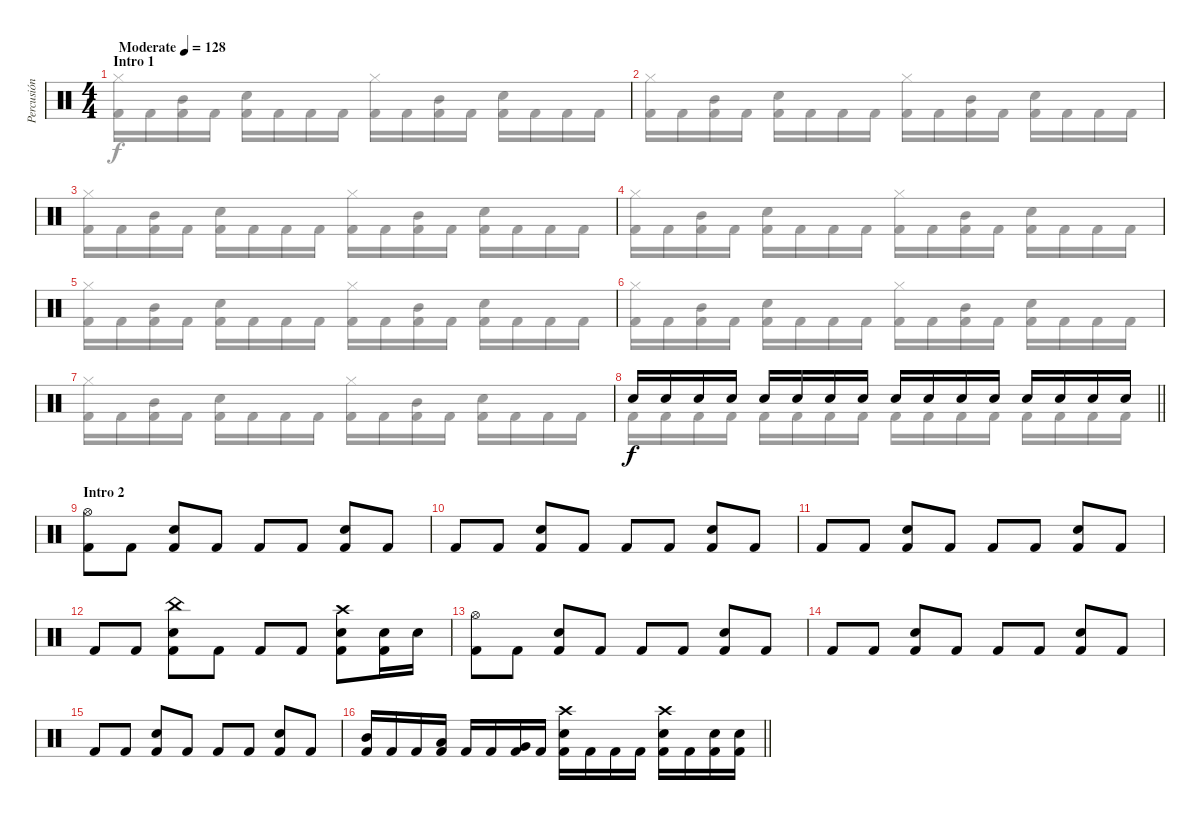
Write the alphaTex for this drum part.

\track ("Percusión" "Percusión") {instrument percussion}
\staff {score}
\articulation defaults
\voice
\ts (4 4)
\section ("" "Intro 1")
\tempo (128 "Moderate")
\clef neutral
\ks c
|
|
|
|
|
|
|
\barLineRight lightlight "Snare (hit) 2".16 "Snare (hit) 2".16 "Snare (hit) 2".16 "Snare (hit) 2".16 "Snare (hit) 2".16 "Snare (hit) 2".16 "Snare (hit) 2".16 "Snare (hit) 2".16 "Snare (hit) 2".16 "Snare (hit) 2".16 "Snare (hit) 2".16 "Snare (hit) 2".16 "Snare (hit) 2".16 "Snare (hit) 2".16 "Snare (hit) 2".16 "Snare (hit) 2".16
|
\section ("" "Intro 2")
("Hi-Hat (open)" "Kick (hit) 2").8 "Kick (hit) 2".8 ("Snare (hit) 2" "Kick (hit) 2").8 "Kick (hit) 2".8 "Kick (hit) 2".8 "Kick (hit) 2".8 ("Snare (hit) 2" "Kick (hit) 2").8 "Kick (hit) 2".8 |
"Kick (hit) 2".8 "Kick (hit) 2".8 ("Snare (hit) 2" "Kick (hit) 2").8 "Kick (hit) 2".8 "Kick (hit) 2".8 "Kick (hit) 2".8 ("Snare (hit) 2" "Kick (hit) 2").8 "Kick (hit) 2".8 |
"Kick (hit) 2".8 "Kick (hit) 2".8 ("Snare (hit) 2" "Kick (hit) 2").8 "Kick (hit) 2".8 "Kick (hit) 2".8 "Kick (hit) 2".8 ("Snare (hit) 2" "Kick (hit) 2").8 "Kick (hit) 2".8 |
"Kick (hit) 2".8 "Kick (hit) 2".8 ("China (hit)" "Snare (hit) 2" "Kick (hit) 2").8 "Kick (hit) 2".8 "Kick (hit) 2".8 "Kick (hit) 2".8 ("Crash high (hit)" "Snare (hit) 2" "Kick (hit) 2").8 ("Snare (hit) 2" "Kick (hit) 2").16 "Snare (hit) 2".16 |
("Hi-Hat (open)" "Kick (hit) 2").8 "Kick (hit) 2".8 ("Snare (hit) 2" "Kick (hit) 2").8 "Kick (hit) 2".8 "Kick (hit) 2".8 "Kick (hit) 2".8 ("Snare (hit) 2" "Kick (hit) 2").8 "Kick (hit) 2".8 |
"Kick (hit) 2".8 "Kick (hit) 2".8 ("Snare (hit) 2" "Kick (hit) 2").8 "Kick (hit) 2".8 "Kick (hit) 2".8 "Kick (hit) 2".8 ("Snare (hit) 2" "Kick (hit) 2").8 "Kick (hit) 2".8 |
"Kick (hit) 2".8 "Kick (hit) 2".8 ("Snare (hit) 2" "Kick (hit) 2").8 "Kick (hit) 2".8 "Kick (hit) 2".8 "Kick (hit) 2".8 ("Snare (hit) 2" "Kick (hit) 2").8 "Kick (hit) 2".8 |
\barLineRight lightlight
("Mid Tom (hit)" "Kick (hit) 2").16 "Kick (hit) 2".16 "Kick (hit) 2".16 ("Low Tom (hit)" "Kick (hit) 2").16 "Kick (hit) 2".16 "Kick (hit) 2".16 ("Very Low Tom (hit)" "Kick (hit) 2").16 "Kick (hit) 2".16 ("Crash high (hit)" "Snare (hit) 2" "Kick (hit) 2").16 "Kick (hit) 2".16 "Kick (hit) 2".16 "Kick (hit) 2".16 ("Crash high (hit)" "Snare (hit) 2" "Kick (hit) 2").16 "Kick (hit) 2".16 ("Snare (hit) 2" "Kick (hit) 2").16 ("Snare (hit) 2" "Kick (hit) 2").16
\voice
\clef neutral
\ottava regular
\simile none
\ks c
("Hi-Hat (closed)" "Kick (hit) 2").16{dy f} "Kick (hit) 2".16 ("Mid Tom (hit)" "Kick (hit) 2").16 "Kick (hit) 2".16 ("Snare (hit) 2" "Kick (hit) 2").16 "Kick (hit) 2".16 "Kick (hit) 2".16 "Kick (hit) 2".16 ("Hi-Hat (closed)" "Kick (hit) 2").16 "Kick (hit) 2".16 ("Mid Tom (hit)" "Kick (hit) 2").16 "Kick (hit) 2".16 ("Snare (hit) 2" "Kick (hit) 2").16 "Kick (hit) 2".16 "Kick (hit) 2".16 "Kick (hit) 2".16 |
("Hi-Hat (closed)" "Kick (hit) 2").16 "Kick (hit) 2".16 ("Mid Tom (hit)" "Kick (hit) 2").16 "Kick (hit) 2".16 ("Snare (hit) 2" "Kick (hit) 2").16 "Kick (hit) 2".16 "Kick (hit) 2".16 "Kick (hit) 2".16 ("Hi-Hat (closed)" "Kick (hit) 2").16 "Kick (hit) 2".16 ("Mid Tom (hit)" "Kick (hit) 2").16 "Kick (hit) 2".16 ("Snare (hit) 2" "Kick (hit) 2").16 "Kick (hit) 2".16 "Kick (hit) 2".16 "Kick (hit) 2".16 |
("Hi-Hat (closed)" "Kick (hit) 2").16 "Kick (hit) 2".16 ("Mid Tom (hit)" "Kick (hit) 2").16 "Kick (hit) 2".16 ("Snare (hit) 2" "Kick (hit) 2").16 "Kick (hit) 2".16 "Kick (hit) 2".16 "Kick (hit) 2".16 ("Hi-Hat (closed)" "Kick (hit) 2").16 "Kick (hit) 2".16 ("Mid Tom (hit)" "Kick (hit) 2").16 "Kick (hit) 2".16 ("Snare (hit) 2" "Kick (hit) 2").16 "Kick (hit) 2".16 "Kick (hit) 2".16 "Kick (hit) 2".16 |
("Hi-Hat (closed)" "Kick (hit) 2").16 "Kick (hit) 2".16 ("Mid Tom (hit)" "Kick (hit) 2").16 "Kick (hit) 2".16 ("Snare (hit) 2" "Kick (hit) 2").16 "Kick (hit) 2".16 "Kick (hit) 2".16 "Kick (hit) 2".16 ("Hi-Hat (closed)" "Kick (hit) 2").16 "Kick (hit) 2".16 ("Mid Tom (hit)" "Kick (hit) 2").16 "Kick (hit) 2".16 ("Snare (hit) 2" "Kick (hit) 2").16 "Kick (hit) 2".16 "Kick (hit) 2".16 "Kick (hit) 2".16 |
("Hi-Hat (closed)" "Kick (hit) 2").16 "Kick (hit) 2".16 ("Mid Tom (hit)" "Kick (hit) 2").16 "Kick (hit) 2".16 ("Snare (hit) 2" "Kick (hit) 2").16 "Kick (hit) 2".16 "Kick (hit) 2".16 "Kick (hit) 2".16 ("Hi-Hat (closed)" "Kick (hit) 2").16 "Kick (hit) 2".16 ("Mid Tom (hit)" "Kick (hit) 2").16 "Kick (hit) 2".16 ("Snare (hit) 2" "Kick (hit) 2").16 "Kick (hit) 2".16 "Kick (hit) 2".16 "Kick (hit) 2".16 |
("Hi-Hat (closed)" "Kick (hit) 2").16 "Kick (hit) 2".16 ("Mid Tom (hit)" "Kick (hit) 2").16 "Kick (hit) 2".16 ("Snare (hit) 2" "Kick (hit) 2").16 "Kick (hit) 2".16 "Kick (hit) 2".16 "Kick (hit) 2".16 ("Hi-Hat (closed)" "Kick (hit) 2").16 "Kick (hit) 2".16 ("Mid Tom (hit)" "Kick (hit) 2").16 "Kick (hit) 2".16 ("Snare (hit) 2" "Kick (hit) 2").16 "Kick (hit) 2".16 "Kick (hit) 2".16 "Kick (hit) 2".16 |
("Hi-Hat (closed)" "Kick (hit) 2").16 "Kick (hit) 2".16 ("Mid Tom (hit)" "Kick (hit) 2").16 "Kick (hit) 2".16 ("Snare (hit) 2" "Kick (hit) 2").16 "Kick (hit) 2".16 "Kick (hit) 2".16 "Kick (hit) 2".16 ("Hi-Hat (closed)" "Kick (hit) 2").16 "Kick (hit) 2".16 ("Mid Tom (hit)" "Kick (hit) 2").16 "Kick (hit) 2".16 ("Snare (hit) 2" "Kick (hit) 2").16 "Kick (hit) 2".16 "Kick (hit) 2".16 "Kick (hit) 2".16 |
\barLineRight lightlight "Kick (hit) 2".16 "Kick (hit) 2".16 "Kick (hit) 2".16 "Kick (hit) 2".16 "Kick (hit) 2".16 "Kick (hit) 2".16 "Kick (hit) 2".16 "Kick (hit) 2".16 "Kick (hit) 2".16 "Kick (hit) 2".16 "Kick (hit) 2".16 "Kick (hit) 2".16 "Kick (hit) 2".16 "Kick (hit) 2".16 "Kick (hit) 2".16 "Kick (hit) 2".16
|
|
|
|
|
|
|
|
\barLineRight lightlight
